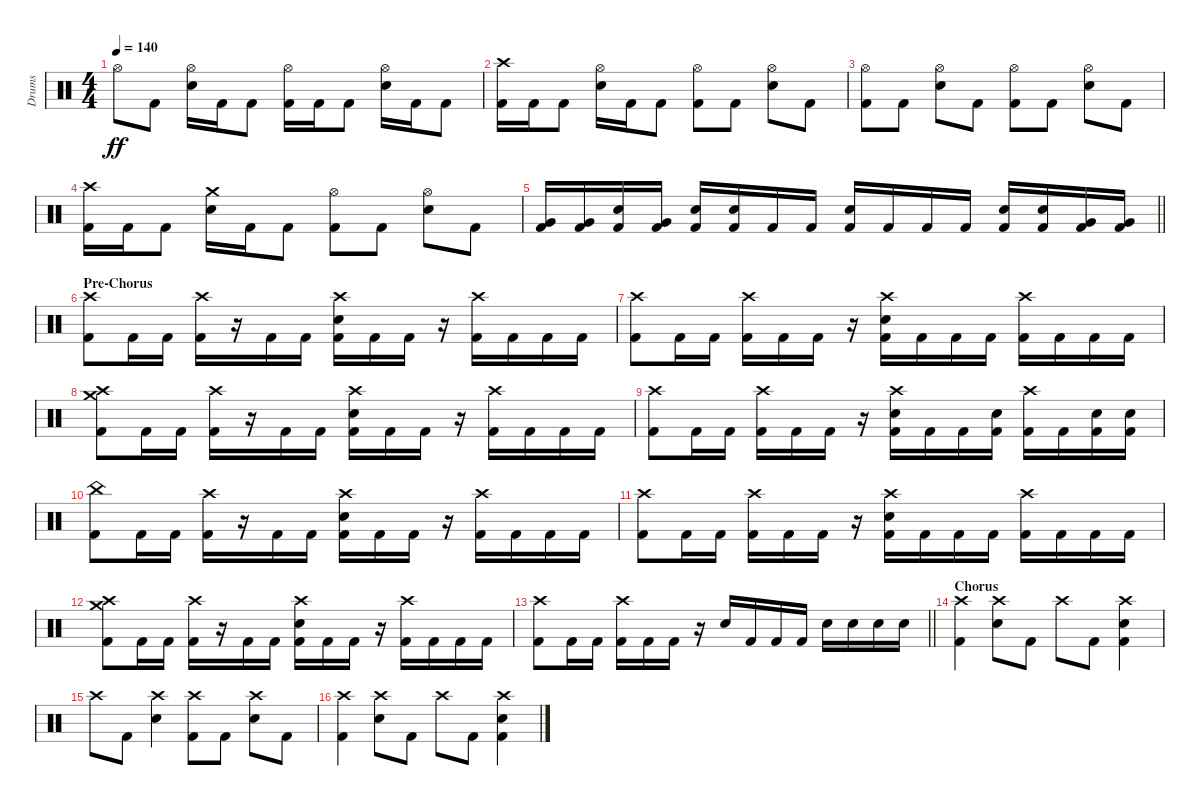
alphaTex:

\track ("Drums" "Drums") {instrument percussion}
\staff {score}
\articulation defaults
\ts (4 4)
\tempo 140
\clef neutral
\ks c "Hi-Hat (open)".8{dy ff} "Kick (hit) 2".8
("Hi-Hat (open)" "Electric Snare (hit)").16 "Kick (hit) 2".16 "Kick (hit) 2".8 ("Hi-Hat (open)" "Kick (hit) 2").16 "Kick (hit) 2".16 "Kick (hit) 2".8 ("Hi-Hat (open)" "Electric Snare (hit)").16 "Kick (hit) 2".16 "Kick (hit) 2".8 |
("Crash high (hit)" "Kick (hit) 2").16 "Kick (hit) 2".16 "Kick (hit) 2".8 ("Hi-Hat (open)" "Electric Snare (hit)").16 "Kick (hit) 2".16 "Kick (hit) 2".8 ("Hi-Hat (open)" "Kick (hit) 2").8 "Kick (hit) 2".8 ("Hi-Hat (open)" "Electric Snare (hit)").8 "Kick (hit) 2".8 |
("Hi-Hat (open)" "Kick (hit) 2").8 "Kick (hit) 2".8 ("Hi-Hat (open)" "Electric Snare (hit)").8 "Kick (hit) 2".8 ("Hi-Hat (open)" "Kick (hit) 2").8 "Kick (hit) 2".8 ("Hi-Hat (open)" "Electric Snare (hit)").8 "Kick (hit) 2".8 |
("Crash high (hit)" "Kick (hit) 2").16 "Kick (hit) 2".16 "Kick (hit) 2".8 ("Crash medium (hit)" "Electric Snare (hit)").16 "Kick (hit) 2".16 "Kick (hit) 2".8 ("Hi-Hat (open)" "Kick (hit) 2").8 "Kick (hit) 2".8 ("Hi-Hat (open)" "Electric Snare (hit)").8 "Kick (hit) 2".8 |
\barLineRight lightlight
("Very Low Tom (hit)" "Kick (hit) 2").16 ("Very Low Tom (hit)" "Kick (hit) 2").16 ("Electric Snare (hit)" "Kick (hit) 2").16 ("Very Low Tom (hit)" "Kick (hit) 2").16 ("Electric Snare (hit)" "Kick (hit) 2").16 ("Electric Snare (hit)" "Kick (hit) 2").16 "Kick (hit) 2".16 "Kick (hit) 2".16 ("Electric Snare (hit)" "Kick (hit) 2").16 "Kick (hit) 2".16 "Kick (hit) 2".16 "Kick (hit) 2".16 ("Electric Snare (hit)" "Kick (hit) 2").16 ("Electric Snare (hit)" "Kick (hit) 2").16 ("Very Low Tom (hit)" "Kick (hit) 2").16 ("Very Low Tom (hit)" "Kick (hit) 2").16 |
\section ("" "Pre-Chorus")
("Crash high (hit)" "Kick (hit) 2").8 "Kick (hit) 2".16 "Kick (hit) 2".16 ("Crash high (hit)" "Kick (hit) 2").16 r.16 "Kick (hit) 2".16 "Kick (hit) 2".16 ("Crash high (hit)" "Electric Snare (hit)" "Kick (hit) 2").16 "Kick (hit) 2".16 "Kick (hit) 2".16 r.16 ("Crash high (hit)" "Kick (hit) 2").16 "Kick (hit) 2".16 "Kick (hit) 2".16 "Kick (hit) 2".16 |
("Crash high (hit)" "Kick (hit) 2").8 "Kick (hit) 2".16 "Kick (hit) 2".16 ("Crash high (hit)" "Kick (hit) 2").16 "Kick (hit) 2".16 "Kick (hit) 2".16 r.16 ("Crash high (hit)" "Electric Snare (hit)" "Kick (hit) 2").16 "Kick (hit) 2".16 "Kick (hit) 2".16 "Kick (hit) 2".16 ("Crash high (hit)" "Kick (hit) 2").16 "Kick (hit) 2".16 "Kick (hit) 2".16 "Kick (hit) 2".16 |
("Crash high (hit)" "Crash medium (hit)" "Kick (hit) 2").8 "Kick (hit) 2".16 "Kick (hit) 2".16 ("Crash high (hit)" "Kick (hit) 2").16 r.16 "Kick (hit) 2".16 "Kick (hit) 2".16 ("Crash high (hit)" "Electric Snare (hit)" "Kick (hit) 2").16 "Kick (hit) 2".16 "Kick (hit) 2".16 r.16 ("Crash high (hit)" "Kick (hit) 2").16 "Kick (hit) 2".16 "Kick (hit) 2".16 "Kick (hit) 2".16 |
("Crash high (hit)" "Kick (hit) 2").8 "Kick (hit) 2".16 "Kick (hit) 2".16 ("Crash high (hit)" "Kick (hit) 2").16 "Kick (hit) 2".16 "Kick (hit) 2".16 r.16 ("Crash high (hit)" "Electric Snare (hit)" "Kick (hit) 2").16 "Kick (hit) 2".16 "Kick (hit) 2".16 ("Electric Snare (hit)" "Kick (hit) 2").16 ("Crash high (hit)" "Kick (hit) 2").16 "Kick (hit) 2".16 ("Electric Snare (hit)" "Kick (hit) 2").16 ("Electric Snare (hit)" "Kick (hit) 2").16 |
("China (hit)" "Kick (hit) 2").8 "Kick (hit) 2".16 "Kick (hit) 2".16 ("Crash high (hit)" "Kick (hit) 2").16 r.16 "Kick (hit) 2".16 "Kick (hit) 2".16 ("Crash high (hit)" "Electric Snare (hit)" "Kick (hit) 2").16 "Kick (hit) 2".16 "Kick (hit) 2".16 r.16 ("Crash high (hit)" "Kick (hit) 2").16 "Kick (hit) 2".16 "Kick (hit) 2".16 "Kick (hit) 2".16 |
("Crash high (hit)" "Kick (hit) 2").8 "Kick (hit) 2".16 "Kick (hit) 2".16 ("Crash high (hit)" "Kick (hit) 2").16 "Kick (hit) 2".16 "Kick (hit) 2".16 r.16 ("Crash high (hit)" "Electric Snare (hit)" "Kick (hit) 2").16 "Kick (hit) 2".16 "Kick (hit) 2".16 "Kick (hit) 2".16 ("Crash high (hit)" "Kick (hit) 2").16 "Kick (hit) 2".16 "Kick (hit) 2".16 "Kick (hit) 2".16 |
("Crash high (hit)" "Crash medium (hit)" "Kick (hit) 2").8 "Kick (hit) 2".16 "Kick (hit) 2".16 ("Crash high (hit)" "Kick (hit) 2").16 r.16 "Kick (hit) 2".16 "Kick (hit) 2".16 ("Crash high (hit)" "Electric Snare (hit)" "Kick (hit) 2").16 "Kick (hit) 2".16 "Kick (hit) 2".16 r.16 ("Crash high (hit)" "Kick (hit) 2").16 "Kick (hit) 2".16 "Kick (hit) 2".16 "Kick (hit) 2".16 |
\barLineRight lightlight
("Crash high (hit)" "Kick (hit) 2").8 "Kick (hit) 2".16 "Kick (hit) 2".16 ("Crash high (hit)" "Kick (hit) 2").16 "Kick (hit) 2".16 "Kick (hit) 2".16 r.16 "Electric Snare (hit)".16 "Kick (hit) 2".16 "Kick (hit) 2".16 "Kick (hit) 2".16 "Electric Snare (hit)".16 "Electric Snare (hit)".16 "Electric Snare (hit)".16 "Electric Snare (hit)".16 |
\section ("" "Chorus")
("Crash high (hit)" "Kick (hit) 2").4 ("Crash high (hit)" "Electric Snare (hit)").8 "Kick (hit) 2".8 "Crash high (hit)".8 "Kick (hit) 2".8 ("Crash high (hit)" "Electric Snare (hit)" "Kick (hit) 2").4 |
"Crash high (hit)".8 "Kick (hit) 2".8 ("Crash high (hit)" "Electric Snare (hit)").4 ("Crash high (hit)" "Kick (hit) 2").8 "Kick (hit) 2".8 ("Crash high (hit)" "Electric Snare (hit)").8 "Kick (hit) 2".8 |
("Crash high (hit)" "Kick (hit) 2").4 ("Crash high (hit)" "Electric Snare (hit)").8 "Kick (hit) 2".8 "Crash high (hit)".8 "Kick (hit) 2".8 ("Crash high (hit)" "Electric Snare (hit)" "Kick (hit) 2").4
